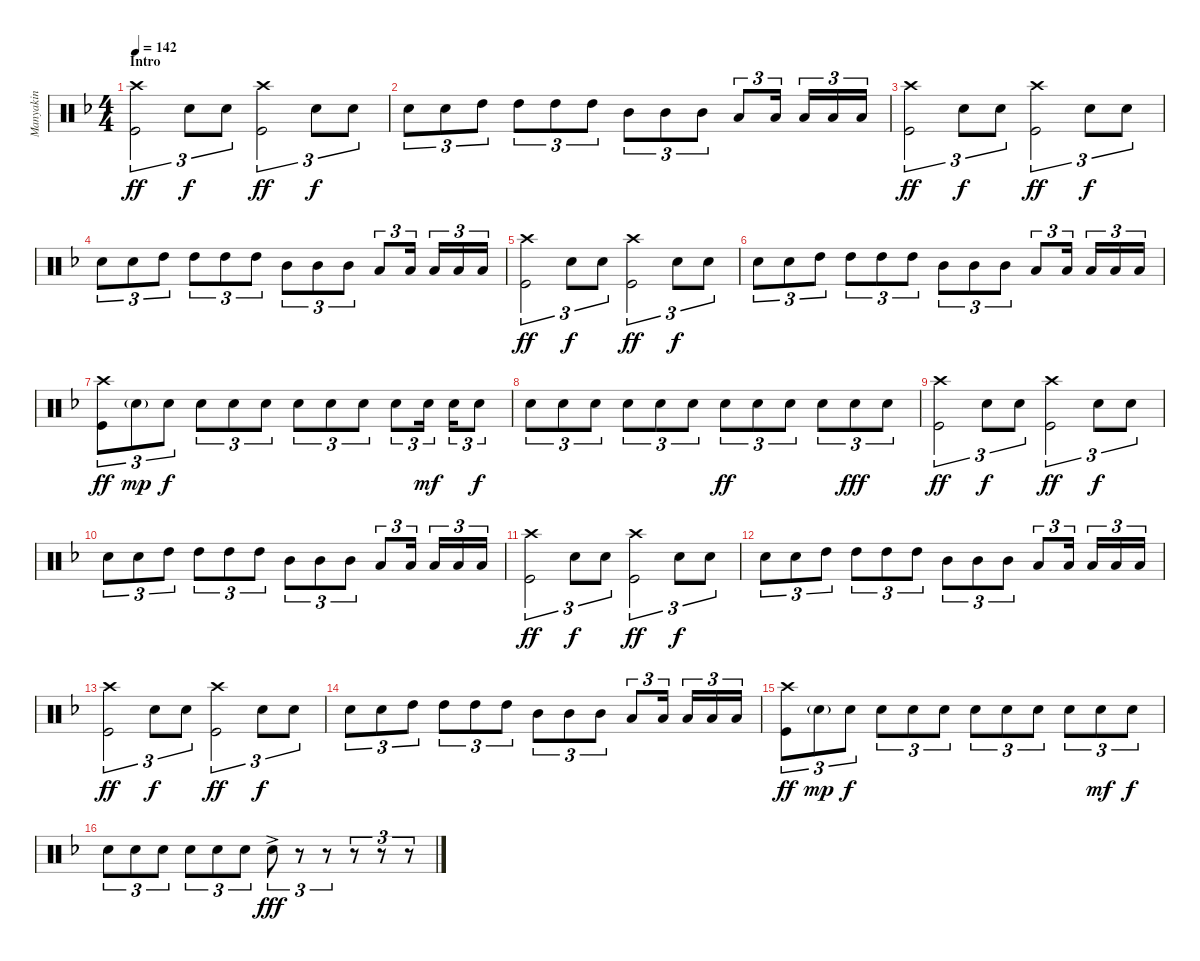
\track ("Manyakin" "Manyakin") {instrument percussion}
\staff {score}
\articulation defaults
\ts (4 4)
\section ("" "Intro")
\tempo 142
\clef neutral
\ks dminor
("Crash high (hit)" "Kick (hit)").2{tu (3 2) dy ff} "Electric Snare (hit)".8{tu (3 2) dy f} "Electric Snare (hit)".8{tu (3 2)} ("Crash high (hit)" "Kick (hit)").2{tu (3 2) dy ff} "Electric Snare (hit)".8{tu (3 2) dy f} "Electric Snare (hit)".8{tu (3 2)} |
"Electric Snare (hit)".8{tu (3 2)} "Electric Snare (hit)".8{tu (3 2)} "High Tom (hit)".8{tu (3 2)} "High Tom (hit)".8{tu (3 2)} "High Tom (hit)".8{tu (3 2)} "High Tom (hit)".8{tu (3 2)} "Mid Tom (hit)".8{tu (3 2)} "Mid Tom (hit)".8{tu (3 2)} "Mid Tom (hit)".8{tu (3 2)} "Low Tom (hit)".8{tu (3 2)} "Low Tom (hit)".16{tu (3 2)} "Low Tom (hit)".16{tu (3 2)} "Low Tom (hit)".16{tu (3 2)} "Low Tom (hit)".16{tu (3 2)} |
("Crash high (hit)" "Kick (hit)").2{tu (3 2) dy ff} "Electric Snare (hit)".8{tu (3 2) dy f} "Electric Snare (hit)".8{tu (3 2)} ("Crash high (hit)" "Kick (hit)").2{tu (3 2) dy ff} "Electric Snare (hit)".8{tu (3 2) dy f} "Electric Snare (hit)".8{tu (3 2)} |
"Electric Snare (hit)".8{tu (3 2)} "Electric Snare (hit)".8{tu (3 2)} "High Tom (hit)".8{tu (3 2)} "High Tom (hit)".8{tu (3 2)} "High Tom (hit)".8{tu (3 2)} "High Tom (hit)".8{tu (3 2)} "Mid Tom (hit)".8{tu (3 2)} "Mid Tom (hit)".8{tu (3 2)} "Mid Tom (hit)".8{tu (3 2)} "Low Tom (hit)".8{tu (3 2)} "Low Tom (hit)".16{tu (3 2)} "Low Tom (hit)".16{tu (3 2)} "Low Tom (hit)".16{tu (3 2)} "Low Tom (hit)".16{tu (3 2)} |
("Crash high (hit)" "Kick (hit)").2{tu (3 2) dy ff} "Electric Snare (hit)".8{tu (3 2) dy f} "Electric Snare (hit)".8{tu (3 2)} ("Crash high (hit)" "Kick (hit)").2{tu (3 2) dy ff} "Electric Snare (hit)".8{tu (3 2) dy f} "Electric Snare (hit)".8{tu (3 2)} |
"Electric Snare (hit)".8{tu (3 2)} "Electric Snare (hit)".8{tu (3 2)} "High Tom (hit)".8{tu (3 2)} "High Tom (hit)".8{tu (3 2)} "High Tom (hit)".8{tu (3 2)} "High Tom (hit)".8{tu (3 2)} "Mid Tom (hit)".8{tu (3 2)} "Mid Tom (hit)".8{tu (3 2)} "Mid Tom (hit)".8{tu (3 2)} "Low Tom (hit)".8{tu (3 2)} "Low Tom (hit)".16{tu (3 2)} "Low Tom (hit)".16{tu (3 2)} "Low Tom (hit)".16{tu (3 2)} "Low Tom (hit)".16{tu (3 2)} |
("Crash high (hit)" "Kick (hit)").8{tu (3 2) dy ff} "Electric Snare (hit)"{g}.8{tu (3 2) dy mp} "Electric Snare (hit)".8{tu (3 2) dy f} "Electric Snare (hit)".8{tu (3 2)} "Electric Snare (hit)".8{tu (3 2)} "Electric Snare (hit)".8{tu (3 2)} "Electric Snare (hit)".8{tu (3 2)} "Electric Snare (hit)".8{tu (3 2)} "Electric Snare (hit)".8{tu (3 2)} "Electric Snare (hit)".8{tu (3 2)} "Electric Snare (hit)".16{tu (3 2) dy mf} "Electric Snare (hit)".16{tu (3 2)} "Electric Snare (hit)".8{tu (3 2) dy f} |
"Electric Snare (hit)".8{tu (3 2)} "Electric Snare (hit)".8{tu (3 2)} "Electric Snare (hit)".8{tu (3 2)} "Electric Snare (hit)".8{tu (3 2)} "Electric Snare (hit)".8{tu (3 2)} "Electric Snare (hit)".8{tu (3 2)} "Electric Snare (hit)".8{tu (3 2) dy ff} "Electric Snare (hit)".8{tu (3 2)} "Electric Snare (hit)".8{tu (3 2)} "Electric Snare (hit)".8{tu (3 2)} "Electric Snare (hit)".8{tu (3 2) dy fff} "Electric Snare (hit)".8{tu (3 2)} |
("Crash high (hit)" "Kick (hit)").2{tu (3 2) dy ff} "Electric Snare (hit)".8{tu (3 2) dy f} "Electric Snare (hit)".8{tu (3 2)} ("Crash high (hit)" "Kick (hit)").2{tu (3 2) dy ff} "Electric Snare (hit)".8{tu (3 2) dy f} "Electric Snare (hit)".8{tu (3 2)} |
"Electric Snare (hit)".8{tu (3 2)} "Electric Snare (hit)".8{tu (3 2)} "High Tom (hit)".8{tu (3 2)} "High Tom (hit)".8{tu (3 2)} "High Tom (hit)".8{tu (3 2)} "High Tom (hit)".8{tu (3 2)} "Mid Tom (hit)".8{tu (3 2)} "Mid Tom (hit)".8{tu (3 2)} "Mid Tom (hit)".8{tu (3 2)} "Low Tom (hit)".8{tu (3 2)} "Low Tom (hit)".16{tu (3 2)} "Low Tom (hit)".16{tu (3 2)} "Low Tom (hit)".16{tu (3 2)} "Low Tom (hit)".16{tu (3 2)} |
("Crash high (hit)" "Kick (hit)").2{tu (3 2) dy ff} "Electric Snare (hit)".8{tu (3 2) dy f} "Electric Snare (hit)".8{tu (3 2)} ("Crash high (hit)" "Kick (hit)").2{tu (3 2) dy ff} "Electric Snare (hit)".8{tu (3 2) dy f} "Electric Snare (hit)".8{tu (3 2)} |
"Electric Snare (hit)".8{tu (3 2)} "Electric Snare (hit)".8{tu (3 2)} "High Tom (hit)".8{tu (3 2)} "High Tom (hit)".8{tu (3 2)} "High Tom (hit)".8{tu (3 2)} "High Tom (hit)".8{tu (3 2)} "Mid Tom (hit)".8{tu (3 2)} "Mid Tom (hit)".8{tu (3 2)} "Mid Tom (hit)".8{tu (3 2)} "Low Tom (hit)".8{tu (3 2)} "Low Tom (hit)".16{tu (3 2)} "Low Tom (hit)".16{tu (3 2)} "Low Tom (hit)".16{tu (3 2)} "Low Tom (hit)".16{tu (3 2)} |
("Crash high (hit)" "Kick (hit)").2{tu (3 2) dy ff} "Electric Snare (hit)".8{tu (3 2) dy f} "Electric Snare (hit)".8{tu (3 2)} ("Crash high (hit)" "Kick (hit)").2{tu (3 2) dy ff} "Electric Snare (hit)".8{tu (3 2) dy f} "Electric Snare (hit)".8{tu (3 2)} |
"Electric Snare (hit)".8{tu (3 2)} "Electric Snare (hit)".8{tu (3 2)} "High Tom (hit)".8{tu (3 2)} "High Tom (hit)".8{tu (3 2)} "High Tom (hit)".8{tu (3 2)} "High Tom (hit)".8{tu (3 2)} "Mid Tom (hit)".8{tu (3 2)} "Mid Tom (hit)".8{tu (3 2)} "Mid Tom (hit)".8{tu (3 2)} "Low Tom (hit)".8{tu (3 2)} "Low Tom (hit)".16{tu (3 2)} "Low Tom (hit)".16{tu (3 2)} "Low Tom (hit)".16{tu (3 2)} "Low Tom (hit)".16{tu (3 2)} |
("Crash high (hit)" "Kick (hit)").8{tu (3 2) dy ff} "Electric Snare (hit)"{g}.8{tu (3 2) dy mp} "Electric Snare (hit)".8{tu (3 2) dy f} "Electric Snare (hit)".8{tu (3 2)} "Electric Snare (hit)".8{tu (3 2)} "Electric Snare (hit)".8{tu (3 2)} "Electric Snare (hit)".8{tu (3 2)} "Electric Snare (hit)".8{tu (3 2)} "Electric Snare (hit)".8{tu (3 2)} "Electric Snare (hit)".8{tu (3 2)} "Electric Snare (hit)".8{tu (3 2) dy mf} "Electric Snare (hit)".8{tu (3 2) dy f} |
"Electric Snare (hit)".8{tu (3 2)} "Electric Snare (hit)".8{tu (3 2)} "Electric Snare (hit)".8{tu (3 2)} "Electric Snare (hit)".8{tu (3 2)} "Electric Snare (hit)".8{tu (3 2)} "Electric Snare (hit)".8{tu (3 2)} "Electric Snare (hit)"{ac}.8{tu (3 2) dy fff} r.8{tu (3 2)} r.8{tu (3 2)} r.8{tu (3 2)} r.8{tu (3 2)} r.8{tu (3 2)}
